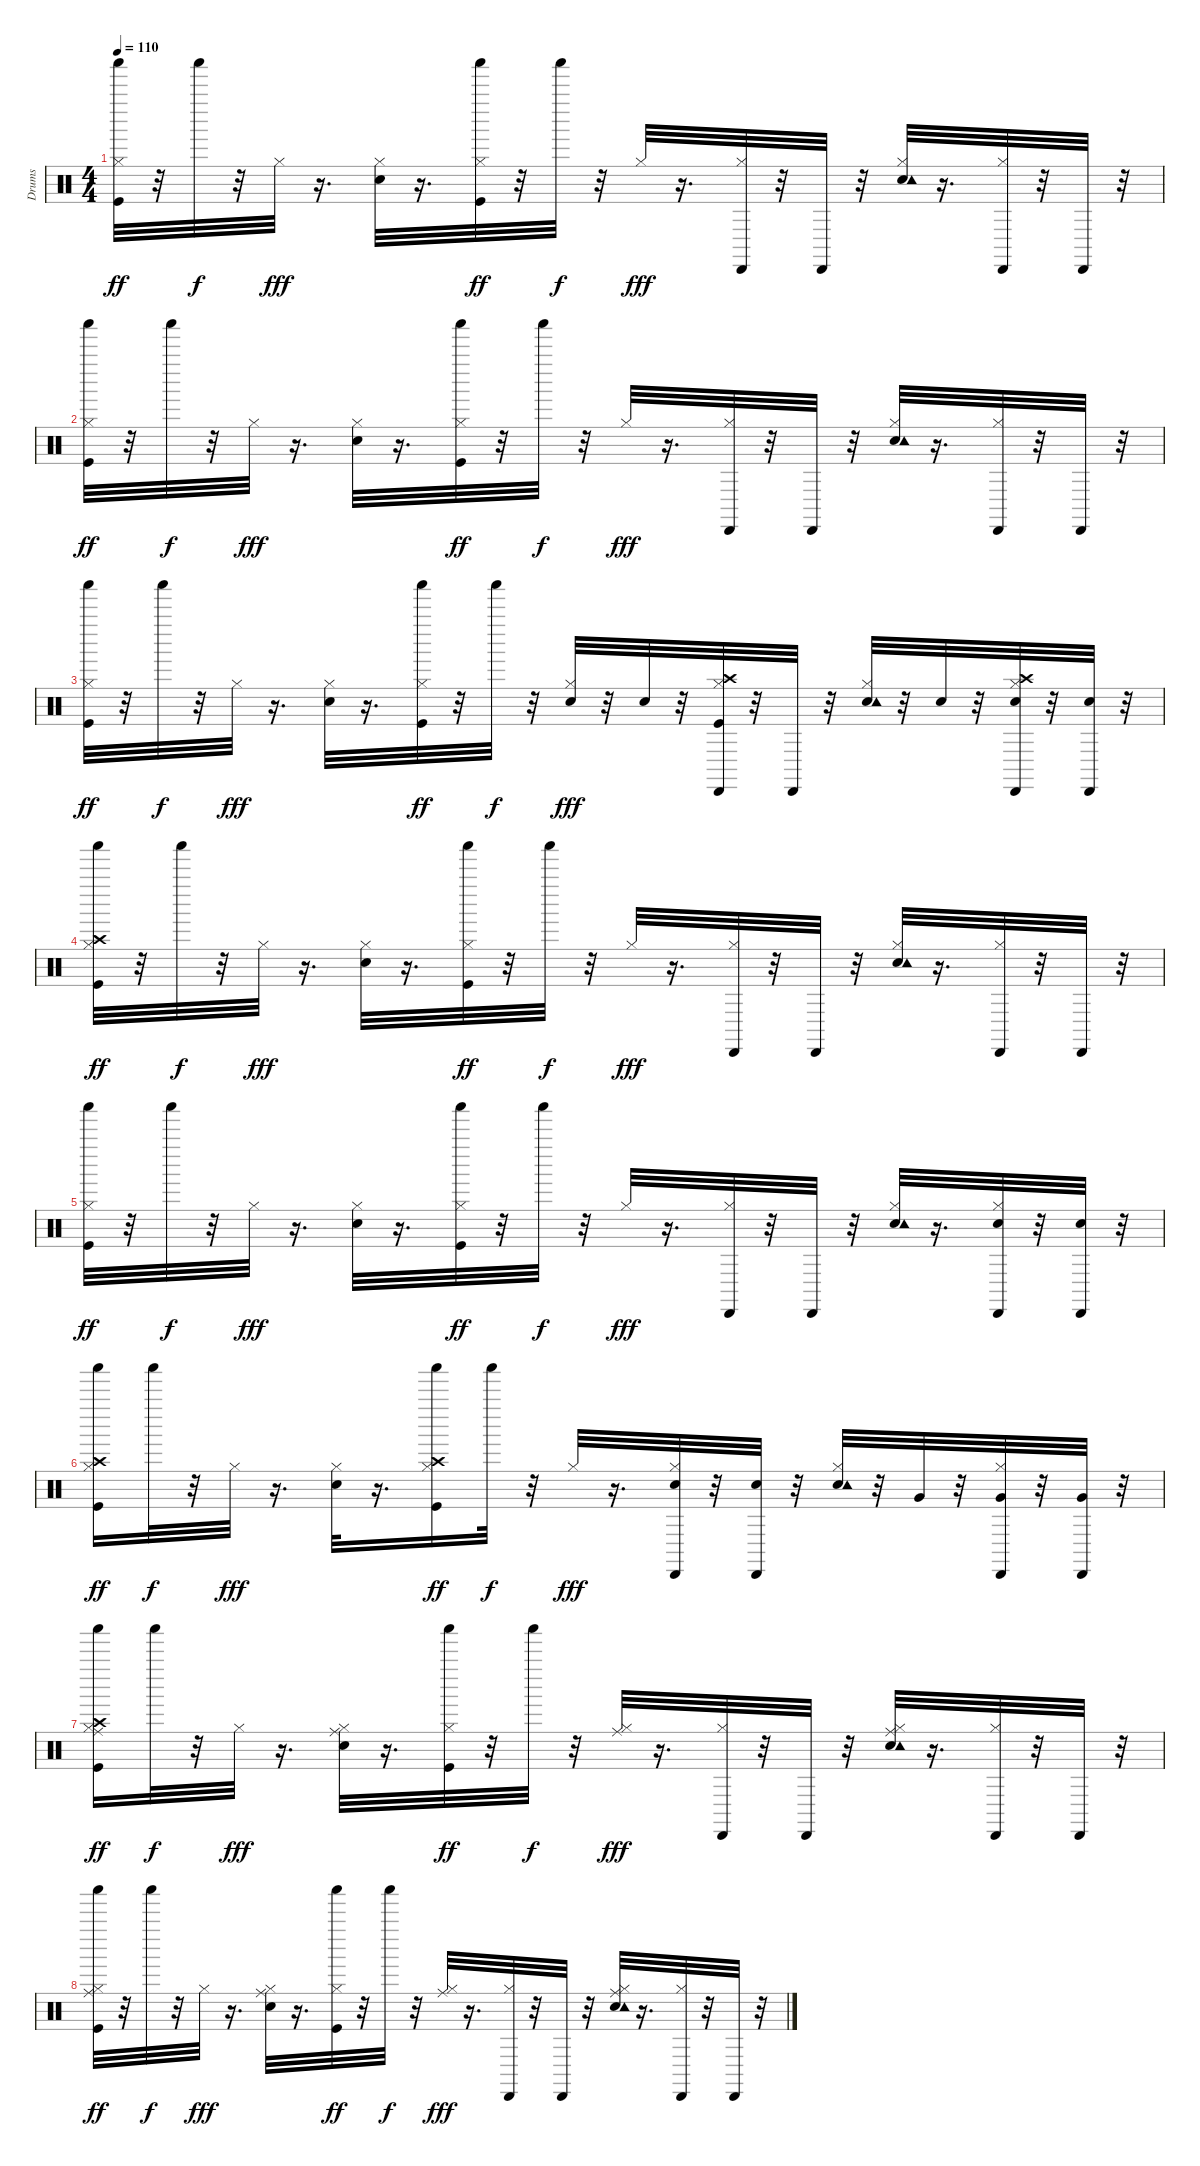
\track ("Drums               " "Drums     ") {instrument percussion}
\staff {score}
\articulation defaults
\ts (4 4)
\tempo 110
\clef neutral
\ks c
("Kick (hit)" "Hi-Hat (closed)" "Shaker (hit)").32{dy ff} r.32 "Shaker (hit)".32{dy f} r.32 "Hi-Hat (closed)".32{dy fff} r.16{d} ("Electric Snare (hit)" "Hi-Hat (closed)").32 r.16{d} ("Kick (hit)" "Hi-Hat (closed)" "Shaker (hit)").32{dy ff} r.32 "Shaker (hit)".32{dy f} r.32 "Hi-Hat (closed)".32{dy fff} r.16{d} ("Hi-Hat (closed)" "Cabasa (hit)").32 r.32 "Cabasa (hit)".32 r.32 ("Electric Snare (hit)" "Hi-Hat (closed)" "Tambourine (hit)").32 r.16{d} ("Hi-Hat (closed)" "Cabasa (hit)").32 r.32 "Cabasa (hit)".32 r.32 |
("Kick (hit)" "Hi-Hat (closed)" "Shaker (hit)").32{dy ff} r.32 "Shaker (hit)".32{dy f} r.32 "Hi-Hat (closed)".32{dy fff} r.16{d} ("Electric Snare (hit)" "Hi-Hat (closed)").32 r.16{d} ("Kick (hit)" "Hi-Hat (closed)" "Shaker (hit)").32{dy ff} r.32 "Shaker (hit)".32{dy f} r.32 "Hi-Hat (closed)".32{dy fff} r.16{d} ("Hi-Hat (closed)" "Cabasa (hit)").32 r.32 "Cabasa (hit)".32 r.32 ("Electric Snare (hit)" "Hi-Hat (closed)" "Tambourine (hit)").32 r.16{d} ("Hi-Hat (closed)" "Cabasa (hit)").32 r.32 "Cabasa (hit)".32 r.32 |
("Kick (hit)" "Hi-Hat (closed)" "Shaker (hit)").32{dy ff} r.32 "Shaker (hit)".32{dy f} r.32 "Hi-Hat (closed)".32{dy fff} r.16{d} ("Electric Snare (hit)" "Hi-Hat (closed)").32 r.16{d} ("Kick (hit)" "Hi-Hat (closed)" "Shaker (hit)").32{dy ff} r.32 "Shaker (hit)".32{dy f} r.32 ("Electric Snare (hit)" "Hi-Hat (closed)").32{dy fff} r.32 "Electric Snare (hit)".32 r.32 ("Kick (hit)" "Hi-Hat (closed)" "Crash high (hit)" "Cabasa (hit)").32 r.32 "Cabasa (hit)".32 r.32 ("Electric Snare (hit)" "Hi-Hat (closed)" "Tambourine (hit)").32 r.32 "Electric Snare (hit)".32 r.32 ("Electric Snare (hit)" "Hi-Hat (closed)" "Crash high (hit)" "Cabasa (hit)").32 r.32 ("Electric Snare (hit)" "Cabasa (hit)").32 r.32 |
("Kick (hit)" "Hi-Hat (closed)" "Crash high (hit)" "Shaker (hit)").32{dy ff} r.32 "Shaker (hit)".32{dy f} r.32 "Hi-Hat (closed)".32{dy fff} r.16{d} ("Electric Snare (hit)" "Hi-Hat (closed)").32 r.16{d} ("Kick (hit)" "Hi-Hat (closed)" "Shaker (hit)").32{dy ff} r.32 "Shaker (hit)".32{dy f} r.32 "Hi-Hat (closed)".32{dy fff} r.16{d} ("Hi-Hat (closed)" "Cabasa (hit)").32 r.32 "Cabasa (hit)".32 r.32 ("Electric Snare (hit)" "Hi-Hat (closed)" "Tambourine (hit)").32 r.16{d} ("Hi-Hat (closed)" "Cabasa (hit)").32 r.32 "Cabasa (hit)".32 r.32 |
("Kick (hit)" "Hi-Hat (closed)" "Shaker (hit)").32{dy ff} r.32 "Shaker (hit)".32{dy f} r.32 "Hi-Hat (closed)".32{dy fff} r.16{d} ("Electric Snare (hit)" "Hi-Hat (closed)").32 r.16{d} ("Kick (hit)" "Hi-Hat (closed)" "Shaker (hit)").32{dy ff} r.32 "Shaker (hit)".32{dy f} r.32 "Hi-Hat (closed)".32{dy fff} r.16{d} ("Hi-Hat (closed)" "Cabasa (hit)").32 r.32 "Cabasa (hit)".32 r.32 ("Electric Snare (hit)" "Hi-Hat (closed)" "Tambourine (hit)").32 r.16{d} ("Electric Snare (hit)" "Hi-Hat (closed)" "Cabasa (hit)").32 r.32 ("Electric Snare (hit)" "Cabasa (hit)").32 r.32 |
("Kick (hit)" "Hi-Hat (closed)" "Crash high (hit)" "Shaker (hit)").16{dy ff} "Shaker (hit)".32{dy f} r.32 "Hi-Hat (closed)".32{dy fff} r.16{d} ("Electric Snare (hit)" "Hi-Hat (closed)").32 r.16{d} ("Kick (hit)" "Hi-Hat (closed)" "Crash high (hit)" "Shaker (hit)").16{dy ff} "Shaker (hit)".32{dy f} r.32 "Hi-Hat (closed)".32{dy fff} r.16{d} ("Electric Snare (hit)" "Hi-Hat (closed)" "Cabasa (hit)").32 r.32 ("Electric Snare (hit)" "Cabasa (hit)").32 r.32 ("Electric Snare (hit)" "Hi-Hat (closed)" "Tambourine (hit)").32 r.32 "Very Low Tom (hit)".32 r.32 ("Hi-Hat (closed)" "Very Low Tom (hit)" "Cabasa (hit)").32 r.32 ("Very Low Tom (hit)" "Cabasa (hit)").32 r.32 |
("Kick (hit)" "Hi-Hat (closed)" "Crash high (hit)" "Ride (middle)" "Shaker (hit)").16{dy ff} "Shaker (hit)".32{dy f} r.32 "Hi-Hat (closed)".32{dy fff} r.16{d} ("Electric Snare (hit)" "Hi-Hat (closed)" "Ride (middle)").32 r.16{d} ("Kick (hit)" "Hi-Hat (closed)" "Shaker (hit)").32{dy ff} r.32 "Shaker (hit)".32{dy f} r.32 ("Hi-Hat (closed)" "Ride (middle)").32{dy fff} r.16{d} ("Hi-Hat (closed)" "Cabasa (hit)").32 r.32 "Cabasa (hit)".32 r.32 ("Electric Snare (hit)" "Hi-Hat (closed)" "Ride (middle)" "Tambourine (hit)").32 r.16{d} ("Hi-Hat (closed)" "Cabasa (hit)").32 r.32 "Cabasa (hit)".32 r.32 |
("Kick (hit)" "Hi-Hat (closed)" "Ride (middle)" "Shaker (hit)").32{dy ff} r.32 "Shaker (hit)".32{dy f} r.32 "Hi-Hat (closed)".32{dy fff} r.16{d} ("Electric Snare (hit)" "Hi-Hat (closed)" "Ride (middle)").32 r.16{d} ("Kick (hit)" "Hi-Hat (closed)" "Shaker (hit)").32{dy ff} r.32 "Shaker (hit)".32{dy f} r.32 ("Hi-Hat (closed)" "Ride (middle)").32{dy fff} r.16{d} ("Hi-Hat (closed)" "Cabasa (hit)").32 r.32 "Cabasa (hit)".32 r.32 ("Electric Snare (hit)" "Hi-Hat (closed)" "Ride (middle)" "Tambourine (hit)").32 r.16{d} ("Hi-Hat (closed)" "Cabasa (hit)").32 r.32 "Cabasa (hit)".32 r.32
